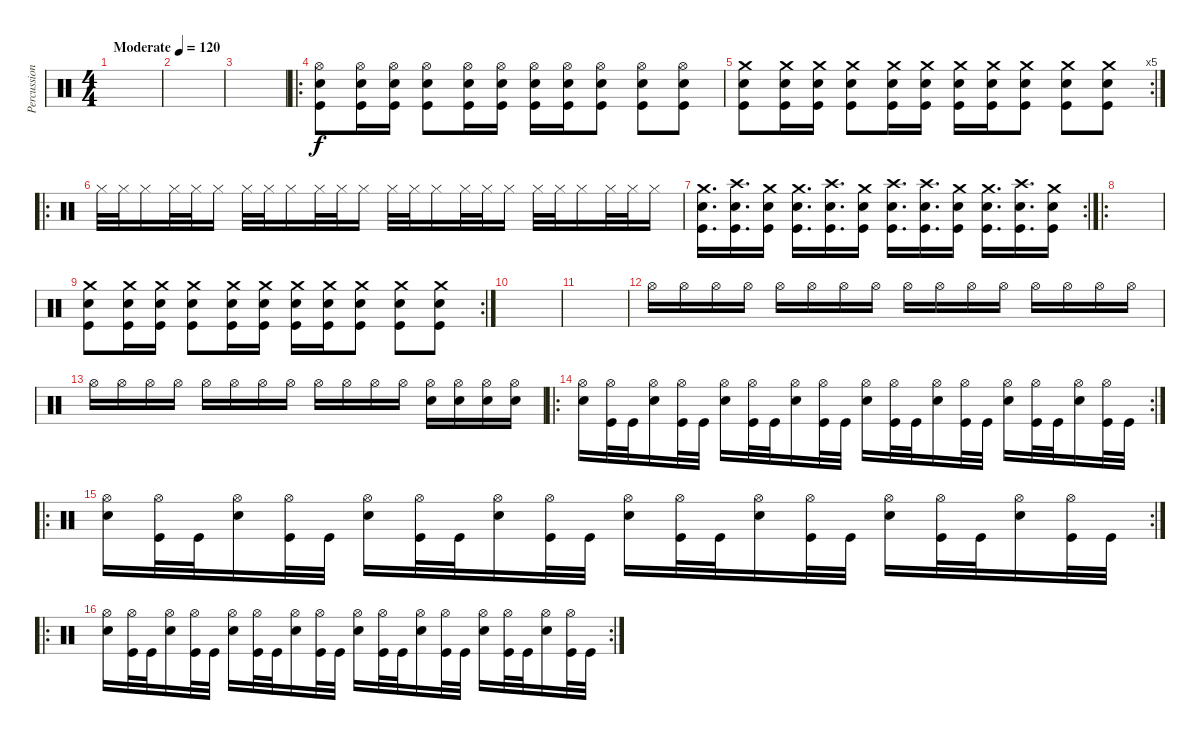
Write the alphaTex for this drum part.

\track ("Percussion" "Percussion") {instrument percussion}
\staff {score}
\articulation defaults
\ts (4 4)
\tempo (120 "Moderate")
\clef neutral
\ks c
|
|
|
\ro
("Hi-Hat (open)" "Snare (hit) 2" "Kick (hit)").8 ("Hi-Hat (open)" "Snare (hit) 2" "Kick (hit)").16 ("Hi-Hat (open)" "Snare (hit) 2" "Kick (hit)").16 ("Hi-Hat (open)" "Snare (hit) 2" "Kick (hit)").8 ("Hi-Hat (open)" "Snare (hit) 2" "Kick (hit)").16 ("Hi-Hat (open)" "Snare (hit) 2" "Kick (hit)").16 ("Hi-Hat (open)" "Snare (hit) 2" "Kick (hit)").16 ("Hi-Hat (open)" "Snare (hit) 2" "Kick (hit)").16 ("Hi-Hat (open)" "Snare (hit) 2" "Kick (hit)").8 ("Hi-Hat (open)" "Snare (hit) 2" "Kick (hit)").8 ("Hi-Hat (open)" "Snare (hit) 2" "Kick (hit)").8 |
\rc 5
("Crash medium (hit)" "Snare (hit) 2" "Kick (hit)").8 ("Crash medium (hit)" "Snare (hit) 2" "Kick (hit)").16 ("Crash medium (hit)" "Snare (hit) 2" "Kick (hit)").16 ("Crash medium (hit)" "Snare (hit) 2" "Kick (hit)").8 ("Crash medium (hit)" "Snare (hit) 2" "Kick (hit)").16 ("Crash medium (hit)" "Snare (hit) 2" "Kick (hit)").16 ("Crash medium (hit)" "Snare (hit) 2" "Kick (hit)").16 ("Crash medium (hit)" "Snare (hit) 2" "Kick (hit)").16 ("Crash medium (hit)" "Snare (hit) 2" "Kick (hit)").8 ("Crash medium (hit)" "Snare (hit) 2" "Kick (hit)").8 ("Crash medium (hit)" "Snare (hit) 2" "Kick (hit)").8 |
\ro "Hi-Hat (closed)".32 "Hi-Hat (closed)".32 "Hi-Hat (closed)".16 "Hi-Hat (closed)".32 "Hi-Hat (closed)".32 "Hi-Hat (closed)".16 "Hi-Hat (closed)".32 "Hi-Hat (closed)".32 "Hi-Hat (closed)".16 "Hi-Hat (closed)".32 "Hi-Hat (closed)".32 "Hi-Hat (closed)".16 "Hi-Hat (closed)".32 "Hi-Hat (closed)".32 "Hi-Hat (closed)".16 "Hi-Hat (closed)".32 "Hi-Hat (closed)".32 "Hi-Hat (closed)".16 "Hi-Hat (closed)".32 "Hi-Hat (closed)".32 "Hi-Hat (closed)".16 "Hi-Hat (closed)".32 "Hi-Hat (closed)".32 "Hi-Hat (closed)".16
|
\rc 2
("Crash medium (hit)" "Snare (hit) 2" "Kick (hit)").16{d} ("Crash high (hit)" "Snare (hit) 2" "Kick (hit)").16{d} ("Crash medium (hit)" "Snare (hit) 2" "Kick (hit)").16 ("Crash medium (hit)" "Snare (hit) 2" "Kick (hit)").16{d} ("Crash high (hit)" "Snare (hit) 2" "Kick (hit)").16{d} ("Crash medium (hit)" "Snare (hit) 2" "Kick (hit)").16 ("Crash high (hit)" "Snare (hit) 2" "Kick (hit)").16{d} ("Crash high (hit)" "Snare (hit) 2" "Kick (hit)").16{d} ("Crash medium (hit)" "Snare (hit) 2" "Kick (hit)").16 ("Crash medium (hit)" "Snare (hit) 2" "Kick (hit)").16{d} ("Crash high (hit)" "Snare (hit) 2" "Kick (hit)").16{d} ("Crash medium (hit)" "Snare (hit) 2" "Kick (hit)").16 |
\ro
|
\rc 2
("Crash medium (hit)" "Snare (hit) 2" "Kick (hit)").8 ("Crash medium (hit)" "Snare (hit) 2" "Kick (hit)").16 ("Crash medium (hit)" "Snare (hit) 2" "Kick (hit)").16 ("Crash medium (hit)" "Snare (hit) 2" "Kick (hit)").8 ("Crash medium (hit)" "Snare (hit) 2" "Kick (hit)").16 ("Crash medium (hit)" "Snare (hit) 2" "Kick (hit)").16 ("Crash medium (hit)" "Snare (hit) 2" "Kick (hit)").16 ("Crash medium (hit)" "Snare (hit) 2" "Kick (hit)").16 ("Crash medium (hit)" "Snare (hit) 2" "Kick (hit)").8 ("Crash medium (hit)" "Snare (hit) 2" "Kick (hit)").8 ("Crash medium (hit)" "Snare (hit) 2" "Kick (hit)").8 |
|
|
"Hi-Hat (open)".16 "Hi-Hat (open)".16 "Hi-Hat (open)".16 "Hi-Hat (open)".16 "Hi-Hat (open)".16 "Hi-Hat (open)".16 "Hi-Hat (open)".16 "Hi-Hat (open)".16 "Hi-Hat (open)".16 "Hi-Hat (open)".16 "Hi-Hat (open)".16 "Hi-Hat (open)".16 "Hi-Hat (open)".16 "Hi-Hat (open)".16 "Hi-Hat (open)".16 "Hi-Hat (open)".16 |
"Hi-Hat (open)".16 "Hi-Hat (open)".16 "Hi-Hat (open)".16 "Hi-Hat (open)".16 "Hi-Hat (open)".16 "Hi-Hat (open)".16 "Hi-Hat (open)".16 "Hi-Hat (open)".16 "Hi-Hat (open)".16 "Hi-Hat (open)".16 "Hi-Hat (open)".16 "Hi-Hat (open)".16 ("Hi-Hat (open)" "Snare (hit) 2").16 ("Hi-Hat (open)" "Snare (hit) 2").16 ("Hi-Hat (open)" "Snare (hit) 2").16 ("Hi-Hat (open)" "Snare (hit) 2").16 |
\ro
\rc 2
("Hi-Hat (open)" "Snare (hit) 2").16 ("Hi-Hat (open)" "Kick (hit)").32 "Kick (hit)".32 ("Hi-Hat (open)" "Snare (hit) 2").16 ("Hi-Hat (open)" "Kick (hit)").32 "Kick (hit)".32 ("Hi-Hat (open)" "Snare (hit) 2").16 ("Hi-Hat (open)" "Kick (hit)").32 "Kick (hit)".32 ("Hi-Hat (open)" "Snare (hit) 2").16 ("Hi-Hat (open)" "Kick (hit)").32 "Kick (hit)".32 ("Hi-Hat (open)" "Snare (hit) 2").16 ("Hi-Hat (open)" "Kick (hit)").32 "Kick (hit)".32 ("Hi-Hat (open)" "Snare (hit) 2").16 ("Hi-Hat (open)" "Kick (hit)").32 "Kick (hit)".32 ("Hi-Hat (open)" "Snare (hit) 2").16 ("Hi-Hat (open)" "Kick (hit)").32 "Kick (hit)".32 ("Hi-Hat (open)" "Snare (hit) 2").16 ("Hi-Hat (open)" "Kick (hit)").32 "Kick (hit)".32 |
\ro
\rc 2
("Hi-Hat (open)" "Snare (hit) 2").16 ("Hi-Hat (open)" "Kick (hit)").32 "Kick (hit)".32 ("Hi-Hat (open)" "Snare (hit) 2").16 ("Hi-Hat (open)" "Kick (hit)").32 "Kick (hit)".32 ("Hi-Hat (open)" "Snare (hit) 2").16 ("Hi-Hat (open)" "Kick (hit)").32 "Kick (hit)".32 ("Hi-Hat (open)" "Snare (hit) 2").16 ("Hi-Hat (open)" "Kick (hit)").32 "Kick (hit)".32 ("Hi-Hat (open)" "Snare (hit) 2").16 ("Hi-Hat (open)" "Kick (hit)").32 "Kick (hit)".32 ("Hi-Hat (open)" "Snare (hit) 2").16 ("Hi-Hat (open)" "Kick (hit)").32 "Kick (hit)".32 ("Hi-Hat (open)" "Snare (hit) 2").16 ("Hi-Hat (open)" "Kick (hit)").32 "Kick (hit)".32 ("Hi-Hat (open)" "Snare (hit) 2").16 ("Hi-Hat (open)" "Kick (hit)").32 "Kick (hit)".32 |
\ro
\rc 2
("Hi-Hat (open)" "Snare (hit) 2").16 ("Hi-Hat (open)" "Kick (hit)").32 "Kick (hit)".32 ("Hi-Hat (open)" "Snare (hit) 2").16 ("Hi-Hat (open)" "Kick (hit)").32 "Kick (hit)".32 ("Hi-Hat (open)" "Snare (hit) 2").16 ("Hi-Hat (open)" "Kick (hit)").32 "Kick (hit)".32 ("Hi-Hat (open)" "Snare (hit) 2").16 ("Hi-Hat (open)" "Kick (hit)").32 "Kick (hit)".32 ("Hi-Hat (open)" "Snare (hit) 2").16 ("Hi-Hat (open)" "Kick (hit)").32 "Kick (hit)".32 ("Hi-Hat (open)" "Snare (hit) 2").16 ("Hi-Hat (open)" "Kick (hit)").32 "Kick (hit)".32 ("Hi-Hat (open)" "Snare (hit) 2").16 ("Hi-Hat (open)" "Kick (hit)").32 "Kick (hit)".32 ("Hi-Hat (open)" "Snare (hit) 2").16 ("Hi-Hat (open)" "Kick (hit)").32 "Kick (hit)".32
